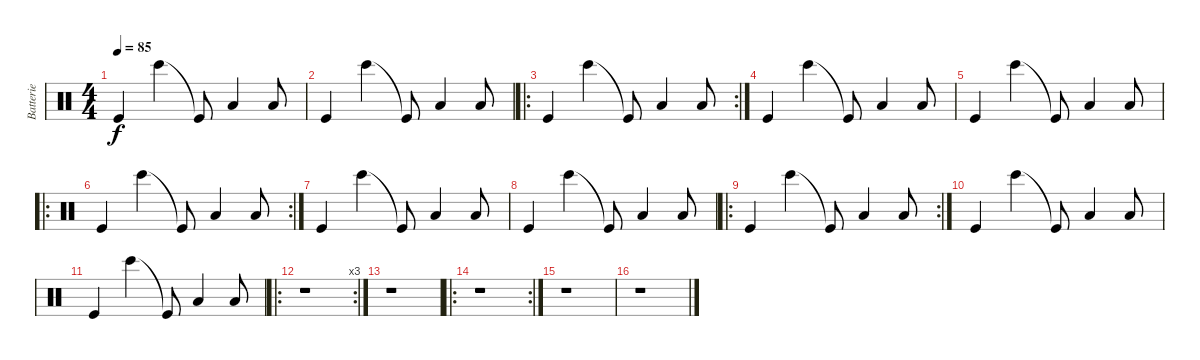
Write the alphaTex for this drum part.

\track ("Batterie" "Batterie") {instrument percussion}
\staff {score}
\articulation defaults
\ts (4 4)
\tempo 85
\clef neutral
\ks c "Kick (hit)".4{dy f} "Bongo High (hit)".4 "Kick (hit)"{t}.8 "Low Tom (hit)".4 "Low Tom (hit)".8
|
"Kick (hit)".4 "Bongo High (hit)".4 "Kick (hit)"{t}.8 "Low Tom (hit)".4 "Low Tom (hit)".8 |
\ro
\rc 2 "Kick (hit)".4 "Bongo High (hit)".4 "Kick (hit)"{t}.8 "Low Tom (hit)".4 "Low Tom (hit)".8
|
"Kick (hit)".4 "Bongo High (hit)".4 "Kick (hit)"{t}.8 "Low Tom (hit)".4 "Low Tom (hit)".8 |
"Kick (hit)".4 "Bongo High (hit)".4 "Kick (hit)"{t}.8 "Low Tom (hit)".4 "Low Tom (hit)".8 |
\ro
\rc 2 "Kick (hit)".4 "Bongo High (hit)".4 "Kick (hit)"{t}.8 "Low Tom (hit)".4 "Low Tom (hit)".8
|
"Kick (hit)".4 "Bongo High (hit)".4 "Kick (hit)"{t}.8 "Low Tom (hit)".4 "Low Tom (hit)".8 |
"Kick (hit)".4 "Bongo High (hit)".4 "Kick (hit)"{t}.8 "Low Tom (hit)".4 "Low Tom (hit)".8 |
\ro
\rc 2 "Kick (hit)".4 "Bongo High (hit)".4 "Kick (hit)"{t}.8 "Low Tom (hit)".4 "Low Tom (hit)".8
|
"Kick (hit)".4 "Bongo High (hit)".4 "Kick (hit)"{t}.8 "Low Tom (hit)".4 "Low Tom (hit)".8 |
"Kick (hit)".4 "Bongo High (hit)".4 "Kick (hit)"{t}.8 "Low Tom (hit)".4 "Low Tom (hit)".8 |
\ro
\rc 3
r.1 |
r.1 |
\ro
\rc 2
r.1 |
r.1 |
r.1
